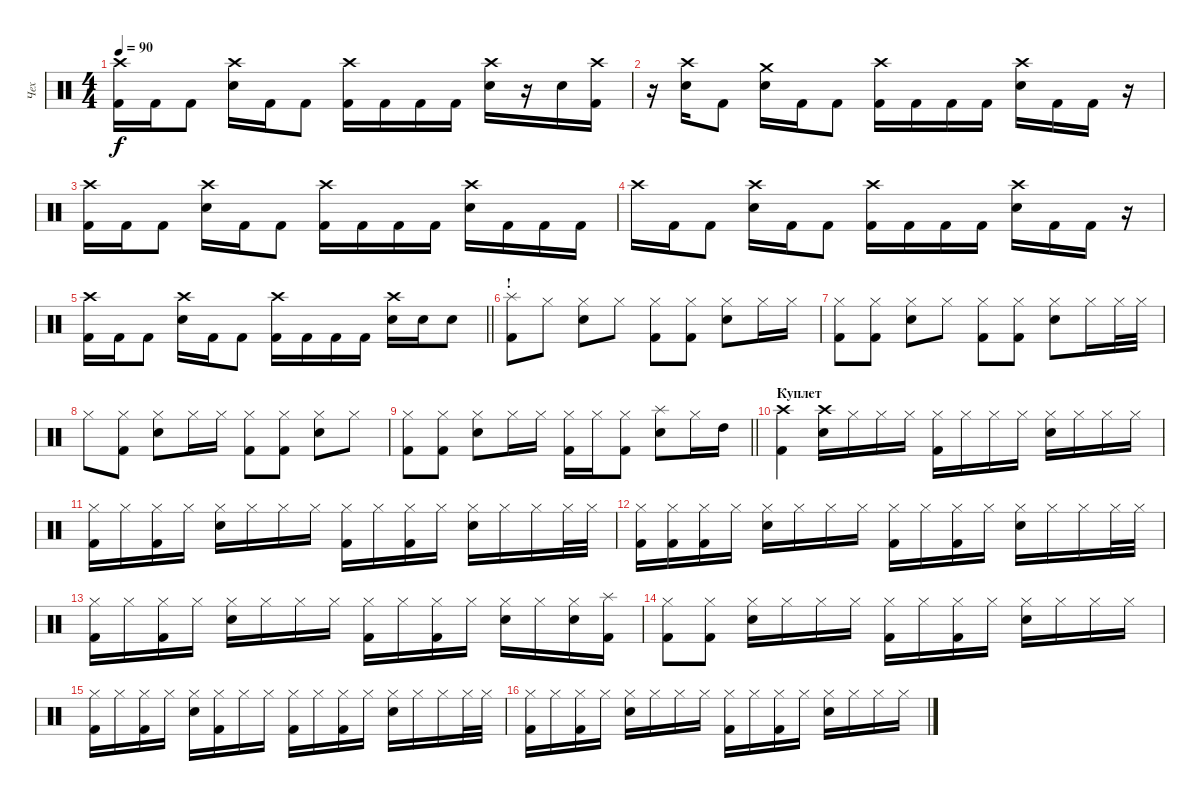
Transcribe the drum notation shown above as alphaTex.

\track ("Чех" "Чех") {instrument percussion}
\staff {score}
\articulation defaults
\ts (4 4)
\tempo 90
\clef neutral
\ks c
("Crash high (hit)" "Kick (hit) 2").16{dy f} "Kick (hit) 2".16 "Kick (hit) 2".8 ("Crash high (hit)" "Electric Snare (hit)").16 "Kick (hit) 2".16 "Kick (hit) 2".8 ("Crash high (hit)" "Kick (hit) 2").16 "Kick (hit) 2".16 "Kick (hit) 2".16 "Kick (hit) 2".16 ("Crash high (hit)" "Electric Snare (hit)").16 r.16 "Electric Snare (hit)".16 ("Crash high (hit)" "Kick (hit) 2").16 |
r.16 ("Crash high (hit)" "Electric Snare (hit)").16 "Kick (hit) 2".8 ("Crash medium (hit)" "Electric Snare (hit)").16 "Kick (hit) 2".16 "Kick (hit) 2".8 ("Crash high (hit)" "Kick (hit) 2").16 "Kick (hit) 2".16 "Kick (hit) 2".16 "Kick (hit) 2".16 ("Crash high (hit)" "Electric Snare (hit)").16 "Kick (hit) 2".16 "Kick (hit) 2".16 r.16 |
("Crash high (hit)" "Kick (hit) 2").16 "Kick (hit) 2".16 "Kick (hit) 2".8 ("Crash high (hit)" "Electric Snare (hit)").16 "Kick (hit) 2".16 "Kick (hit) 2".8 ("Crash high (hit)" "Kick (hit) 2").16 "Kick (hit) 2".16 "Kick (hit) 2".16 "Kick (hit) 2".16 ("Crash high (hit)" "Electric Snare (hit)").16 "Kick (hit) 2".16 "Kick (hit) 2".16 "Kick (hit) 2".16 |
"Crash high (hit)".16 "Kick (hit) 2".16 "Kick (hit) 2".8 ("Crash high (hit)" "Electric Snare (hit)").16 "Kick (hit) 2".16 "Kick (hit) 2".8 ("Crash high (hit)" "Kick (hit) 2").16 "Kick (hit) 2".16 "Kick (hit) 2".16 "Kick (hit) 2".16 ("Crash high (hit)" "Electric Snare (hit)").16 "Kick (hit) 2".16 "Kick (hit) 2".16 r.16 |
\barLineRight lightlight
("Crash high (hit)" "Kick (hit) 2").16 "Kick (hit) 2".16 "Kick (hit) 2".8 ("Crash high (hit)" "Electric Snare (hit)").16 "Kick (hit) 2".16 "Kick (hit) 2".8 ("Crash high (hit)" "Kick (hit) 2").16 "Kick (hit) 2".16 "Kick (hit) 2".16 "Kick (hit) 2".16 ("Crash high (hit)" "Electric Snare (hit)").16 "Electric Snare (hit)".16 "Electric Snare (hit)".8 |
\section ("" "!")
("Splash (hit)" "Kick (hit) 2").8 "Hi-Hat (closed)".8 ("Hi-Hat (closed)" "Electric Snare (hit)").8 "Hi-Hat (closed)".8 ("Hi-Hat (closed)" "Kick (hit) 2").8 ("Hi-Hat (closed)" "Kick (hit) 2").8 ("Hi-Hat (closed)" "Electric Snare (hit)").8 "Hi-Hat (closed)".16 "Hi-Hat (closed)".16 |
("Hi-Hat (closed)" "Kick (hit) 2").8 ("Hi-Hat (closed)" "Kick (hit) 2").8 ("Hi-Hat (closed)" "Electric Snare (hit)").8 "Hi-Hat (closed)".8 ("Hi-Hat (closed)" "Kick (hit) 2").8 ("Hi-Hat (closed)" "Kick (hit) 2").8 ("Hi-Hat (closed)" "Electric Snare (hit)").8 "Hi-Hat (closed)".16 "Hi-Hat (closed)".32 "Hi-Hat (closed)".32 |
"Hi-Hat (closed)".8 ("Hi-Hat (closed)" "Kick (hit) 2").8 ("Hi-Hat (closed)" "Electric Snare (hit)").8 "Hi-Hat (closed)".16 "Hi-Hat (closed)".16 ("Hi-Hat (closed)" "Kick (hit) 2").8 ("Hi-Hat (closed)" "Kick (hit) 2").8 ("Hi-Hat (closed)" "Electric Snare (hit)").8 "Hi-Hat (closed)".8 |
\barLineRight lightlight
("Hi-Hat (closed)" "Kick (hit) 2").8 ("Hi-Hat (closed)" "Kick (hit) 2").8 ("Hi-Hat (closed)" "Electric Snare (hit)").8 "Hi-Hat (closed)".16 "Hi-Hat (closed)".16 ("Hi-Hat (closed)" "Kick (hit) 2").16 "Hi-Hat (closed)".16 ("Hi-Hat (closed)" "Kick (hit) 2").8 ("Splash (hit)" "Electric Snare (hit)").8 "Hi-Hat (closed)".16 "High Tom (hit)".16 |
\section ("" "Куплет")
("Crash high (hit)" "Kick (hit) 2").4 ("Crash high (hit)" "Electric Snare (hit)").16 "Hi-Hat (closed)".16 "Hi-Hat (closed)".16 "Hi-Hat (closed)".16 ("Hi-Hat (closed)" "Kick (hit) 2").16 "Hi-Hat (closed)".16 "Hi-Hat (closed)".16 "Hi-Hat (closed)".16 ("Hi-Hat (closed)" "Electric Snare (hit)").16 "Hi-Hat (closed)".16 "Hi-Hat (closed)".16 "Hi-Hat (closed)".16 |
("Hi-Hat (closed)" "Kick (hit) 2").16 "Hi-Hat (closed)".16 ("Hi-Hat (closed)" "Kick (hit) 2").16 "Hi-Hat (closed)".16 ("Hi-Hat (closed)" "Electric Snare (hit)").16 "Hi-Hat (closed)".16 "Hi-Hat (closed)".16 "Hi-Hat (closed)".16 ("Hi-Hat (closed)" "Kick (hit) 2").16 "Hi-Hat (closed)".16 ("Hi-Hat (closed)" "Kick (hit) 2").16 "Hi-Hat (closed)".16 ("Hi-Hat (closed)" "Electric Snare (hit)").16 "Hi-Hat (closed)".16 "Hi-Hat (closed)".16 "Hi-Hat (closed)".32 "Hi-Hat (closed)".32 |
("Hi-Hat (closed)" "Kick (hit) 2").16 ("Hi-Hat (closed)" "Kick (hit) 2").16 ("Hi-Hat (closed)" "Kick (hit) 2").16 "Hi-Hat (closed)".16 ("Hi-Hat (closed)" "Electric Snare (hit)").16 "Hi-Hat (closed)".16 "Hi-Hat (closed)".16 "Hi-Hat (closed)".16 ("Hi-Hat (closed)" "Kick (hit) 2").16 "Hi-Hat (closed)".16 ("Hi-Hat (closed)" "Kick (hit) 2").16 "Hi-Hat (closed)".16 ("Hi-Hat (closed)" "Electric Snare (hit)").16 "Hi-Hat (closed)".16 "Hi-Hat (closed)".16 "Hi-Hat (closed)".32 "Hi-Hat (closed)".32 |
("Hi-Hat (closed)" "Kick (hit) 2").16 "Hi-Hat (closed)".16 ("Hi-Hat (closed)" "Kick (hit) 2").16 "Hi-Hat (closed)".16 ("Hi-Hat (closed)" "Electric Snare (hit)").16 "Hi-Hat (closed)".16 "Hi-Hat (closed)".16 "Hi-Hat (closed)".16 ("Hi-Hat (closed)" "Kick (hit) 2").16 "Hi-Hat (closed)".16 ("Hi-Hat (closed)" "Kick (hit) 2").16 "Hi-Hat (closed)".16 ("Hi-Hat (closed)" "Electric Snare (hit)").16 "Hi-Hat (closed)".16 ("Hi-Hat (closed)" "Electric Snare (hit)").16 ("Splash (hit)" "Kick (hit) 2").16 |
("Hi-Hat (closed)" "Kick (hit) 2").8 ("Hi-Hat (closed)" "Kick (hit) 2").8 ("Hi-Hat (closed)" "Electric Snare (hit)").16 "Hi-Hat (closed)".16 "Hi-Hat (closed)".16 "Hi-Hat (closed)".16 ("Hi-Hat (closed)" "Kick (hit) 2").16 "Hi-Hat (closed)".16 ("Hi-Hat (closed)" "Kick (hit) 2").16 "Hi-Hat (closed)".16 ("Hi-Hat (closed)" "Electric Snare (hit)").16 "Hi-Hat (closed)".16 "Hi-Hat (closed)".16 "Hi-Hat (closed)".16 |
("Hi-Hat (closed)" "Kick (hit) 2").16 "Hi-Hat (closed)".16 ("Hi-Hat (closed)" "Kick (hit) 2").16 "Hi-Hat (closed)".16 ("Hi-Hat (closed)" "Electric Snare (hit)").16 ("Hi-Hat (closed)" "Kick (hit) 2").16 "Hi-Hat (closed)".16 "Hi-Hat (closed)".16 ("Hi-Hat (closed)" "Kick (hit) 2").16 "Hi-Hat (closed)".16 ("Hi-Hat (closed)" "Kick (hit) 2").16 "Hi-Hat (closed)".16 ("Hi-Hat (closed)" "Electric Snare (hit)").16 "Hi-Hat (closed)".16 "Hi-Hat (closed)".16 "Hi-Hat (closed)".32 "Hi-Hat (closed)".32 |
("Hi-Hat (closed)" "Kick (hit) 2").16 "Hi-Hat (closed)".16 ("Hi-Hat (closed)" "Kick (hit) 2").16 "Hi-Hat (closed)".16 ("Hi-Hat (closed)" "Electric Snare (hit)").16 "Hi-Hat (closed)".16 "Hi-Hat (closed)".16 "Hi-Hat (closed)".16 ("Hi-Hat (closed)" "Kick (hit) 2").16 "Hi-Hat (closed)".16 ("Hi-Hat (closed)" "Kick (hit) 2").16 "Hi-Hat (closed)".16 ("Hi-Hat (closed)" "Electric Snare (hit)").16 "Hi-Hat (closed)".16 "Hi-Hat (closed)".16 "Hi-Hat (closed)".16
